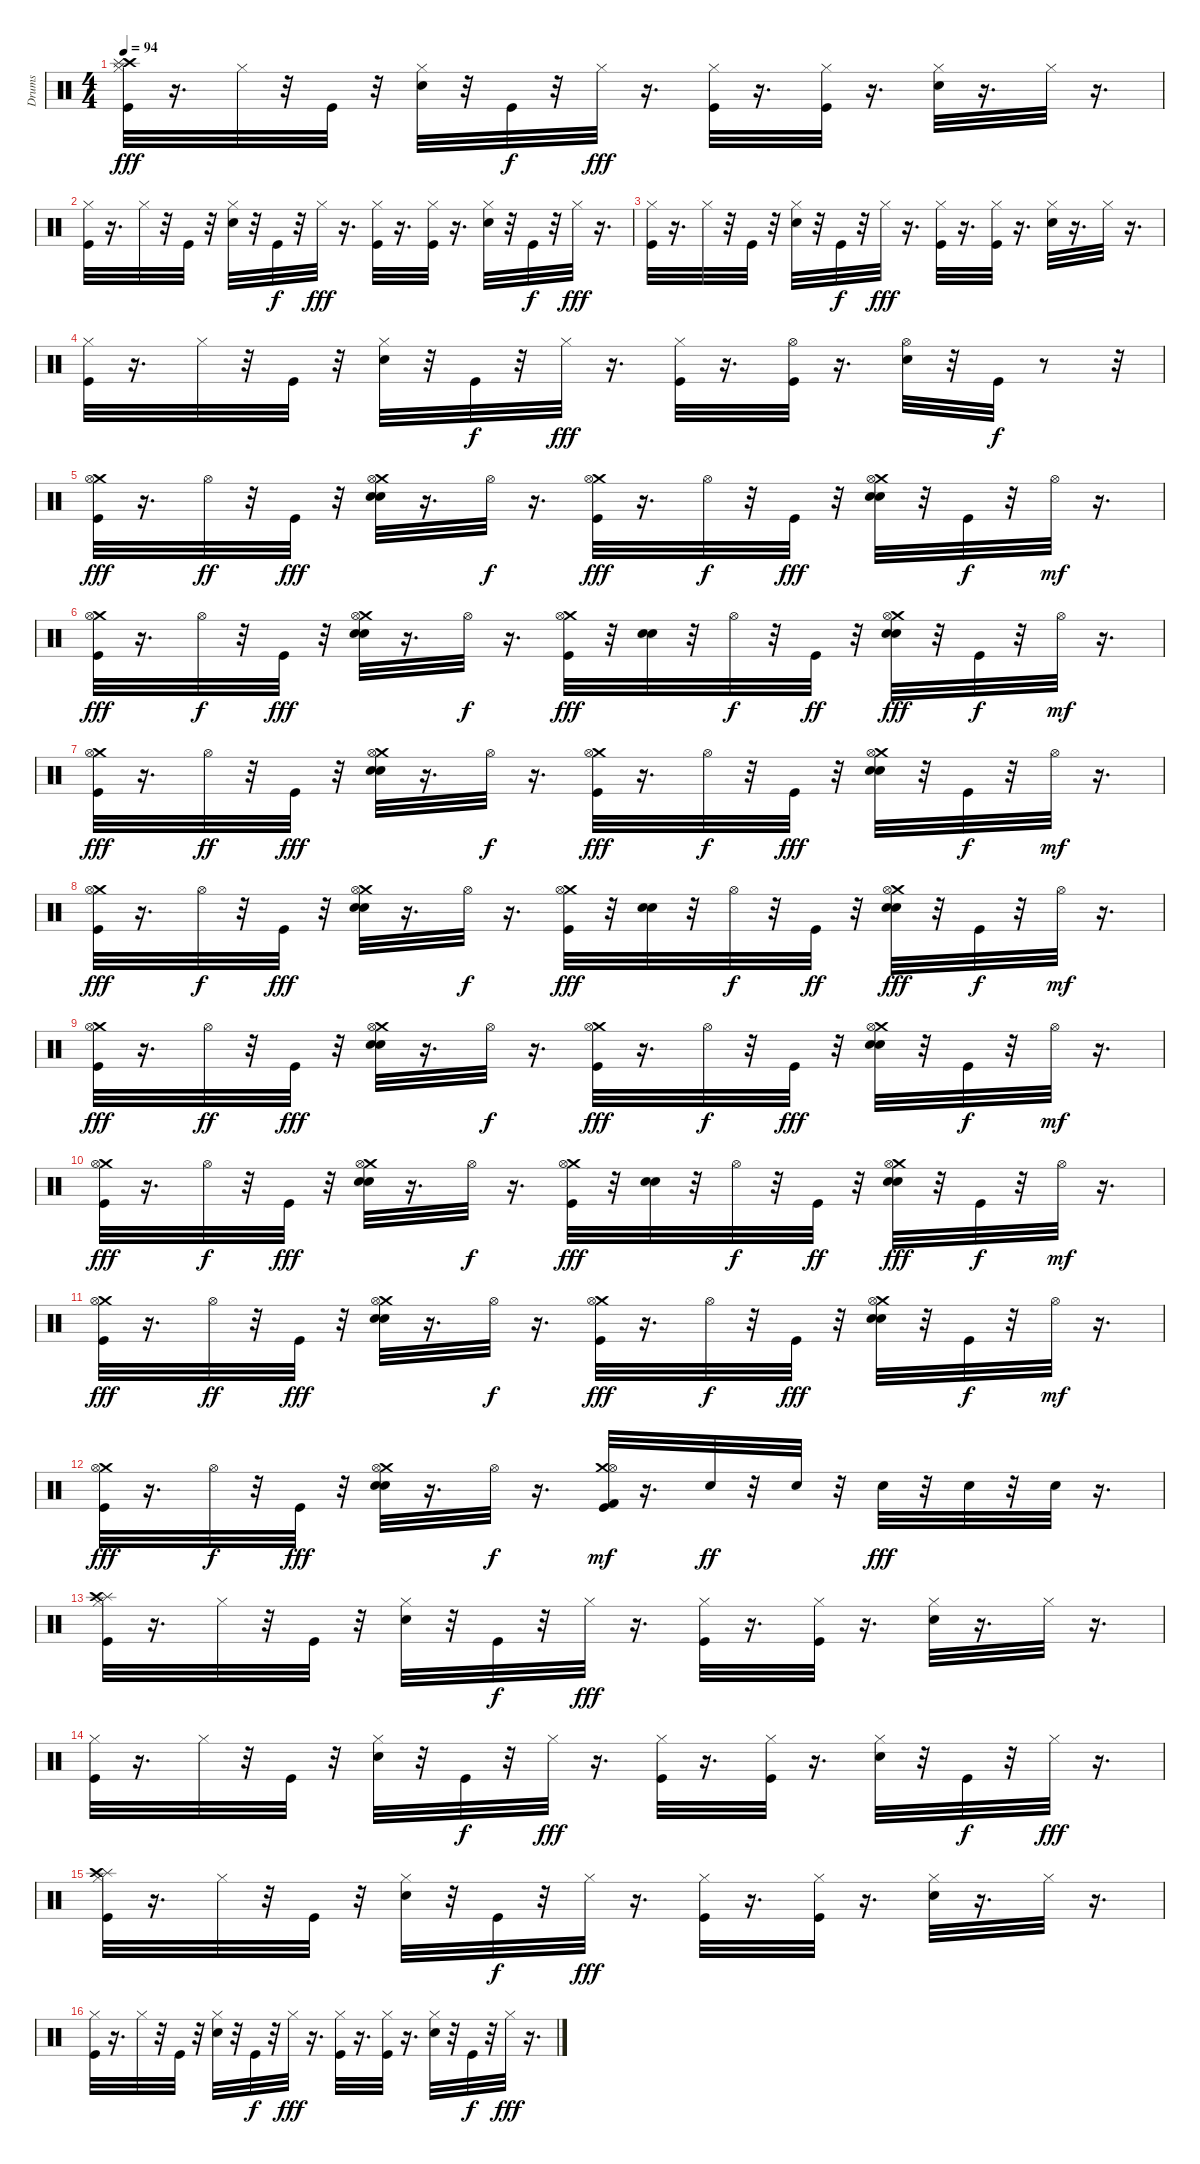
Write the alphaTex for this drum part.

\track ("Drums" "Drums") {instrument percussion}
\staff {score}
\articulation defaults
\ts (4 4)
\tempo 94
\clef neutral
\ks c
("Crash high (hit)" "Splash (hit)" "Kick (hit)" "Hi-Hat (closed)").32{dy fff} r.16{d} "Hi-Hat (closed)".32 r.32 "Kick (hit)".32 r.32 ("Electric Snare (hit)" "Hi-Hat (closed)").32 r.32 "Kick (hit)".32{dy f} r.32 "Hi-Hat (closed)".32{dy fff} r.16{d} ("Hi-Hat (closed)" "Kick (hit)").32 r.16{d} ("Hi-Hat (closed)" "Kick (hit)").32 r.16{d} ("Electric Snare (hit)" "Hi-Hat (closed)").32 r.16{d} "Hi-Hat (closed)".32 r.16{d} |
("Kick (hit)" "Hi-Hat (closed)").32 r.16{d} "Hi-Hat (closed)".32 r.32 "Kick (hit)".32 r.32 ("Electric Snare (hit)" "Hi-Hat (closed)").32 r.32 "Kick (hit)".32{dy f} r.32 "Hi-Hat (closed)".32{dy fff} r.16{d} ("Hi-Hat (closed)" "Kick (hit)").32 r.16{d} ("Hi-Hat (closed)" "Kick (hit)").32 r.16{d} ("Electric Snare (hit)" "Hi-Hat (closed)").32 r.32 "Kick (hit)".32{dy f} r.32 "Hi-Hat (closed)".32{dy fff} r.16{d} |
("Kick (hit)" "Hi-Hat (closed)").32 r.16{d} "Hi-Hat (closed)".32 r.32 "Kick (hit)".32 r.32 ("Electric Snare (hit)" "Hi-Hat (closed)").32 r.32 "Kick (hit)".32{dy f} r.32 "Hi-Hat (closed)".32{dy fff} r.16{d} ("Hi-Hat (closed)" "Kick (hit)").32 r.16{d} ("Hi-Hat (closed)" "Kick (hit)").32 r.16{d} ("Electric Snare (hit)" "Hi-Hat (closed)").32 r.16{d} "Hi-Hat (closed)".32 r.16{d} |
("Kick (hit)" "Hi-Hat (closed)").32 r.16{d} "Hi-Hat (closed)".32 r.32 "Kick (hit)".32 r.32 ("Electric Snare (hit)" "Hi-Hat (closed)").32 r.32 "Kick (hit)".32{dy f} r.32 "Hi-Hat (closed)".32{dy fff} r.16{d} ("Hi-Hat (closed)" "Kick (hit)").32 r.16{d} ("Hi-Hat (open)" "Kick (hit)").32 r.16{d} ("Hi-Hat (open)" "Electric Snare (hit)").32 r.32 "Kick (hit)".32{dy f} r.8 r.32 |
("Crash medium (hit)" "Hi-Hat (open)" "Kick (hit)").32{dy fff} r.16{d} "Hi-Hat (open)".32{dy ff} r.32 "Kick (hit)".32{dy fff} r.32 ("Crash medium (hit)" "Hi-Hat (open)" "Snare (hit) 2" "Electric Snare (hit)").32 r.16{d} "Hi-Hat (open)".32{dy f} r.16{d} ("Crash medium (hit)" "Hi-Hat (open)" "Kick (hit)").32{dy fff} r.16{d} "Hi-Hat (open)".32{dy f} r.32 "Kick (hit)".32{dy fff} r.32 ("Crash medium (hit)" "Hi-Hat (open)" "Snare (hit) 2" "Electric Snare (hit)").32 r.32 "Kick (hit)".32{dy f} r.32 "Hi-Hat (open)".32{dy mf} r.16{d} |
("Crash medium (hit)" "Hi-Hat (open)" "Kick (hit)").32{dy fff} r.16{d} "Hi-Hat (open)".32{dy f} r.32 "Kick (hit)".32{dy fff} r.32 ("Crash medium (hit)" "Hi-Hat (open)" "Snare (hit) 2" "Electric Snare (hit)").32 r.16{d} "Hi-Hat (open)".32{dy f} r.16{d} ("Crash medium (hit)" "Hi-Hat (open)" "Kick (hit)").32{dy fff} r.32 ("Snare (hit) 2" "Electric Snare (hit)").32 r.32 "Hi-Hat (open)".32{dy f} r.32 "Kick (hit)".32{dy ff} r.32 ("Crash medium (hit)" "Hi-Hat (open)" "Snare (hit) 2" "Electric Snare (hit)").32{dy fff} r.32 "Kick (hit)".32{dy f} r.32 "Hi-Hat (open)".32{dy mf} r.16{d} |
("Crash medium (hit)" "Hi-Hat (open)" "Kick (hit)").32{dy fff} r.16{d} "Hi-Hat (open)".32{dy ff} r.32 "Kick (hit)".32{dy fff} r.32 ("Crash medium (hit)" "Hi-Hat (open)" "Snare (hit) 2" "Electric Snare (hit)").32 r.16{d} "Hi-Hat (open)".32{dy f} r.16{d} ("Crash medium (hit)" "Hi-Hat (open)" "Kick (hit)").32{dy fff} r.16{d} "Hi-Hat (open)".32{dy f} r.32 "Kick (hit)".32{dy fff} r.32 ("Crash medium (hit)" "Hi-Hat (open)" "Snare (hit) 2" "Electric Snare (hit)").32 r.32 "Kick (hit)".32{dy f} r.32 "Hi-Hat (open)".32{dy mf} r.16{d} |
("Crash medium (hit)" "Hi-Hat (open)" "Kick (hit)").32{dy fff} r.16{d} "Hi-Hat (open)".32{dy f} r.32 "Kick (hit)".32{dy fff} r.32 ("Crash medium (hit)" "Hi-Hat (open)" "Snare (hit) 2" "Electric Snare (hit)").32 r.16{d} "Hi-Hat (open)".32{dy f} r.16{d} ("Crash medium (hit)" "Hi-Hat (open)" "Kick (hit)").32{dy fff} r.32 ("Snare (hit) 2" "Electric Snare (hit)").32 r.32 "Hi-Hat (open)".32{dy f} r.32 "Kick (hit)".32{dy ff} r.32 ("Crash medium (hit)" "Hi-Hat (open)" "Snare (hit) 2" "Electric Snare (hit)").32{dy fff} r.32 "Kick (hit)".32{dy f} r.32 "Hi-Hat (open)".32{dy mf} r.16{d} |
("Crash medium (hit)" "Hi-Hat (open)" "Kick (hit)").32{dy fff} r.16{d} "Hi-Hat (open)".32{dy ff} r.32 "Kick (hit)".32{dy fff} r.32 ("Crash medium (hit)" "Hi-Hat (open)" "Snare (hit) 2" "Electric Snare (hit)").32 r.16{d} "Hi-Hat (open)".32{dy f} r.16{d} ("Crash medium (hit)" "Hi-Hat (open)" "Kick (hit)").32{dy fff} r.16{d} "Hi-Hat (open)".32{dy f} r.32 "Kick (hit)".32{dy fff} r.32 ("Crash medium (hit)" "Hi-Hat (open)" "Snare (hit) 2" "Electric Snare (hit)").32 r.32 "Kick (hit)".32{dy f} r.32 "Hi-Hat (open)".32{dy mf} r.16{d} |
("Crash medium (hit)" "Hi-Hat (open)" "Kick (hit)").32{dy fff} r.16{d} "Hi-Hat (open)".32{dy f} r.32 "Kick (hit)".32{dy fff} r.32 ("Crash medium (hit)" "Hi-Hat (open)" "Snare (hit) 2" "Electric Snare (hit)").32 r.16{d} "Hi-Hat (open)".32{dy f} r.16{d} ("Crash medium (hit)" "Hi-Hat (open)" "Kick (hit)").32{dy fff} r.32 ("Snare (hit) 2" "Electric Snare (hit)").32 r.32 "Hi-Hat (open)".32{dy f} r.32 "Kick (hit)".32{dy ff} r.32 ("Crash medium (hit)" "Hi-Hat (open)" "Snare (hit) 2" "Electric Snare (hit)").32{dy fff} r.32 "Kick (hit)".32{dy f} r.32 "Hi-Hat (open)".32{dy mf} r.16{d} |
("Crash medium (hit)" "Hi-Hat (open)" "Kick (hit)").32{dy fff} r.16{d} "Hi-Hat (open)".32{dy ff} r.32 "Kick (hit)".32{dy fff} r.32 ("Crash medium (hit)" "Hi-Hat (open)" "Snare (hit) 2" "Electric Snare (hit)").32 r.16{d} "Hi-Hat (open)".32{dy f} r.16{d} ("Crash medium (hit)" "Hi-Hat (open)" "Kick (hit)").32{dy fff} r.16{d} "Hi-Hat (open)".32{dy f} r.32 "Kick (hit)".32{dy fff} r.32 ("Crash medium (hit)" "Hi-Hat (open)" "Snare (hit) 2" "Electric Snare (hit)").32 r.32 "Kick (hit)".32{dy f} r.32 "Hi-Hat (open)".32{dy mf} r.16{d} |
("Crash medium (hit)" "Hi-Hat (open)" "Kick (hit)").32{dy fff} r.16{d} "Hi-Hat (open)".32{dy f} r.32 "Kick (hit)".32{dy fff} r.32 ("Crash medium (hit)" "Hi-Hat (open)" "Snare (hit) 2" "Electric Snare (hit)").32 r.16{d} "Hi-Hat (open)".32{dy f} r.16{d} ("Kick (hit) 2" "Kick (hit)" "Crash medium (hit)" "Hi-Hat (open)").32{dy mf} r.16{d} "Electric Snare (hit)".32{dy ff} r.32 "Electric Snare (hit)".32 r.32 "Electric Snare (hit)".32{dy fff} r.32 "Electric Snare (hit)".32 r.32 "Electric Snare (hit)".32 r.16{d} |
("Kick (hit)" "Splash (hit)" "Crash high (hit)" "Hi-Hat (closed)").32 r.16{d} "Hi-Hat (closed)".32 r.32 "Kick (hit)".32 r.32 ("Electric Snare (hit)" "Hi-Hat (closed)").32 r.32 "Kick (hit)".32{dy f} r.32 "Hi-Hat (closed)".32{dy fff} r.16{d} ("Hi-Hat (closed)" "Kick (hit)").32 r.16{d} ("Hi-Hat (closed)" "Kick (hit)").32 r.16{d} ("Electric Snare (hit)" "Hi-Hat (closed)").32 r.16{d} "Hi-Hat (closed)".32 r.16{d} |
("Kick (hit)" "Hi-Hat (closed)").32 r.16{d} "Hi-Hat (closed)".32 r.32 "Kick (hit)".32 r.32 ("Electric Snare (hit)" "Hi-Hat (closed)").32 r.32 "Kick (hit)".32{dy f} r.32 "Hi-Hat (closed)".32{dy fff} r.16{d} ("Hi-Hat (closed)" "Kick (hit)").32 r.16{d} ("Hi-Hat (closed)" "Kick (hit)").32 r.16{d} ("Electric Snare (hit)" "Hi-Hat (closed)").32 r.32 "Kick (hit)".32{dy f} r.32 "Hi-Hat (closed)".32{dy fff} r.16{d} |
("Kick (hit)" "Splash (hit)" "Crash high (hit)" "Hi-Hat (closed)").32 r.16{d} "Hi-Hat (closed)".32 r.32 "Kick (hit)".32 r.32 ("Electric Snare (hit)" "Hi-Hat (closed)").32 r.32 "Kick (hit)".32{dy f} r.32 "Hi-Hat (closed)".32{dy fff} r.16{d} ("Hi-Hat (closed)" "Kick (hit)").32 r.16{d} ("Hi-Hat (closed)" "Kick (hit)").32 r.16{d} ("Electric Snare (hit)" "Hi-Hat (closed)").32 r.16{d} "Hi-Hat (closed)".32 r.16{d} |
("Kick (hit)" "Hi-Hat (closed)").32 r.16{d} "Hi-Hat (closed)".32 r.32 "Kick (hit)".32 r.32 ("Electric Snare (hit)" "Hi-Hat (closed)").32 r.32 "Kick (hit)".32{dy f} r.32 "Hi-Hat (closed)".32{dy fff} r.16{d} ("Hi-Hat (closed)" "Kick (hit)").32 r.16{d} ("Hi-Hat (closed)" "Kick (hit)").32 r.16{d} ("Electric Snare (hit)" "Hi-Hat (closed)").32 r.32 "Kick (hit)".32{dy f} r.32 "Hi-Hat (closed)".32{dy fff} r.16{d}
